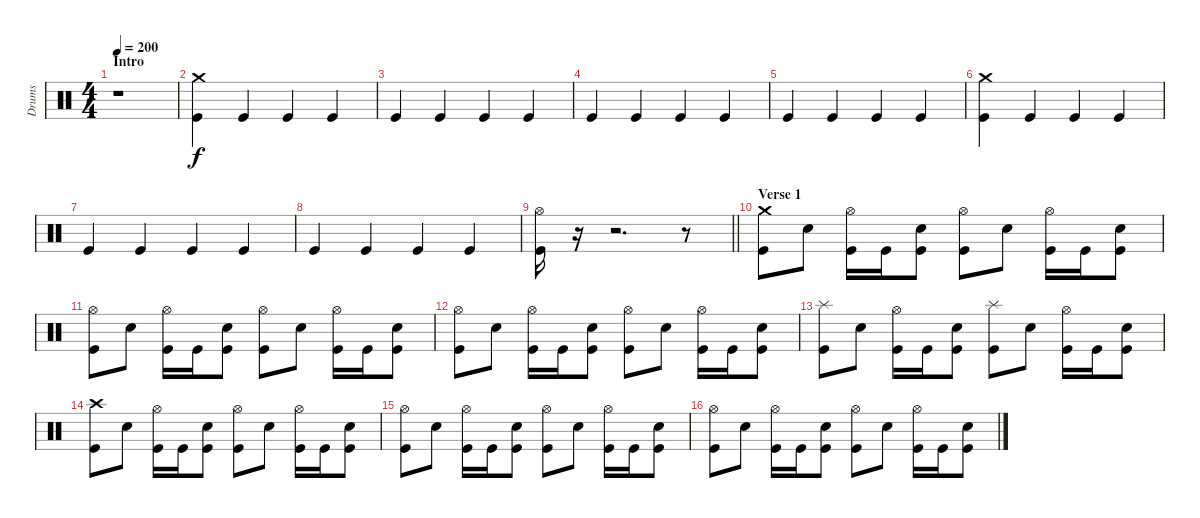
\track ("Drums" "Drums") {instrument percussion}
\staff {score}
\articulation defaults
\ts (4 4)
\section ("" "Intro")
\tempo 200
\clef neutral
\ks c
r.1{dy f} |
("Crash medium (hit)" "Kick (hit)").4 "Kick (hit)".4 "Kick (hit)".4 "Kick (hit)".4 |
"Kick (hit)".4 "Kick (hit)".4 "Kick (hit)".4 "Kick (hit)".4 |
"Kick (hit)".4 "Kick (hit)".4 "Kick (hit)".4 "Kick (hit)".4 |
"Kick (hit)".4 "Kick (hit)".4 "Kick (hit)".4 "Kick (hit)".4 |
("Crash medium (hit)" "Kick (hit)").4 "Kick (hit)".4 "Kick (hit)".4 "Kick (hit)".4 |
"Kick (hit)".4 "Kick (hit)".4 "Kick (hit)".4 "Kick (hit)".4 |
"Kick (hit)".4 "Kick (hit)".4 "Kick (hit)".4 "Kick (hit)".4 |
\barLineRight lightlight
("Hi-Hat (open)" "Kick (hit)").16 r.16 r.2{d} r.8 |
\section ("" "Verse 1")
("Crash medium (hit)" "Kick (hit)").8 "Snare (hit) 2".8 ("Hi-Hat (open)" "Kick (hit)").16 "Kick (hit)".16 ("Snare (hit) 2" "Kick (hit)").8 ("Hi-Hat (open)" "Kick (hit)").8 "Snare (hit) 2".8 ("Hi-Hat (open)" "Kick (hit)").16 "Kick (hit)".16 ("Snare (hit) 2" "Kick (hit)").8 |
("Hi-Hat (open)" "Kick (hit)").8 "Snare (hit) 2".8 ("Hi-Hat (open)" "Kick (hit)").16 "Kick (hit)".16 ("Snare (hit) 2" "Kick (hit)").8 ("Hi-Hat (open)" "Kick (hit)").8 "Snare (hit) 2".8 ("Hi-Hat (open)" "Kick (hit)").16 "Kick (hit)".16 ("Snare (hit) 2" "Kick (hit)").8 |
("Hi-Hat (open)" "Kick (hit)").8 "Snare (hit) 2".8 ("Hi-Hat (open)" "Kick (hit)").16 "Kick (hit)".16 ("Snare (hit) 2" "Kick (hit)").8 ("Hi-Hat (open)" "Kick (hit)").8 "Snare (hit) 2".8 ("Hi-Hat (open)" "Kick (hit)").16 "Kick (hit)".16 ("Snare (hit) 2" "Kick (hit)").8 |
("Splash (hit)" "Kick (hit)").8 "Snare (hit) 2".8 ("Hi-Hat (open)" "Kick (hit)").16 "Kick (hit)".16 ("Snare (hit) 2" "Kick (hit)").8 ("Splash (hit)" "Kick (hit)").8 "Snare (hit) 2".8 ("Hi-Hat (open)" "Kick (hit)").16 "Kick (hit)".16 ("Snare (hit) 2" "Kick (hit)").8 |
("Crash high (hit)" "Kick (hit)").8 "Snare (hit) 2".8 ("Hi-Hat (open)" "Kick (hit)").16 "Kick (hit)".16 ("Snare (hit) 2" "Kick (hit)").8 ("Hi-Hat (open)" "Kick (hit)").8 "Snare (hit) 2".8 ("Hi-Hat (open)" "Kick (hit)").16 "Kick (hit)".16 ("Snare (hit) 2" "Kick (hit)").8 |
("Hi-Hat (open)" "Kick (hit)").8 "Snare (hit) 2".8 ("Hi-Hat (open)" "Kick (hit)").16 "Kick (hit)".16 ("Snare (hit) 2" "Kick (hit)").8 ("Hi-Hat (open)" "Kick (hit)").8 "Snare (hit) 2".8 ("Hi-Hat (open)" "Kick (hit)").16 "Kick (hit)".16 ("Snare (hit) 2" "Kick (hit)").8 |
("Hi-Hat (open)" "Kick (hit)").8 "Snare (hit) 2".8 ("Hi-Hat (open)" "Kick (hit)").16 "Kick (hit)".16 ("Snare (hit) 2" "Kick (hit)").8 ("Hi-Hat (open)" "Kick (hit)").8 "Snare (hit) 2".8 ("Hi-Hat (open)" "Kick (hit)").16 "Kick (hit)".16 ("Snare (hit) 2" "Kick (hit)").8
